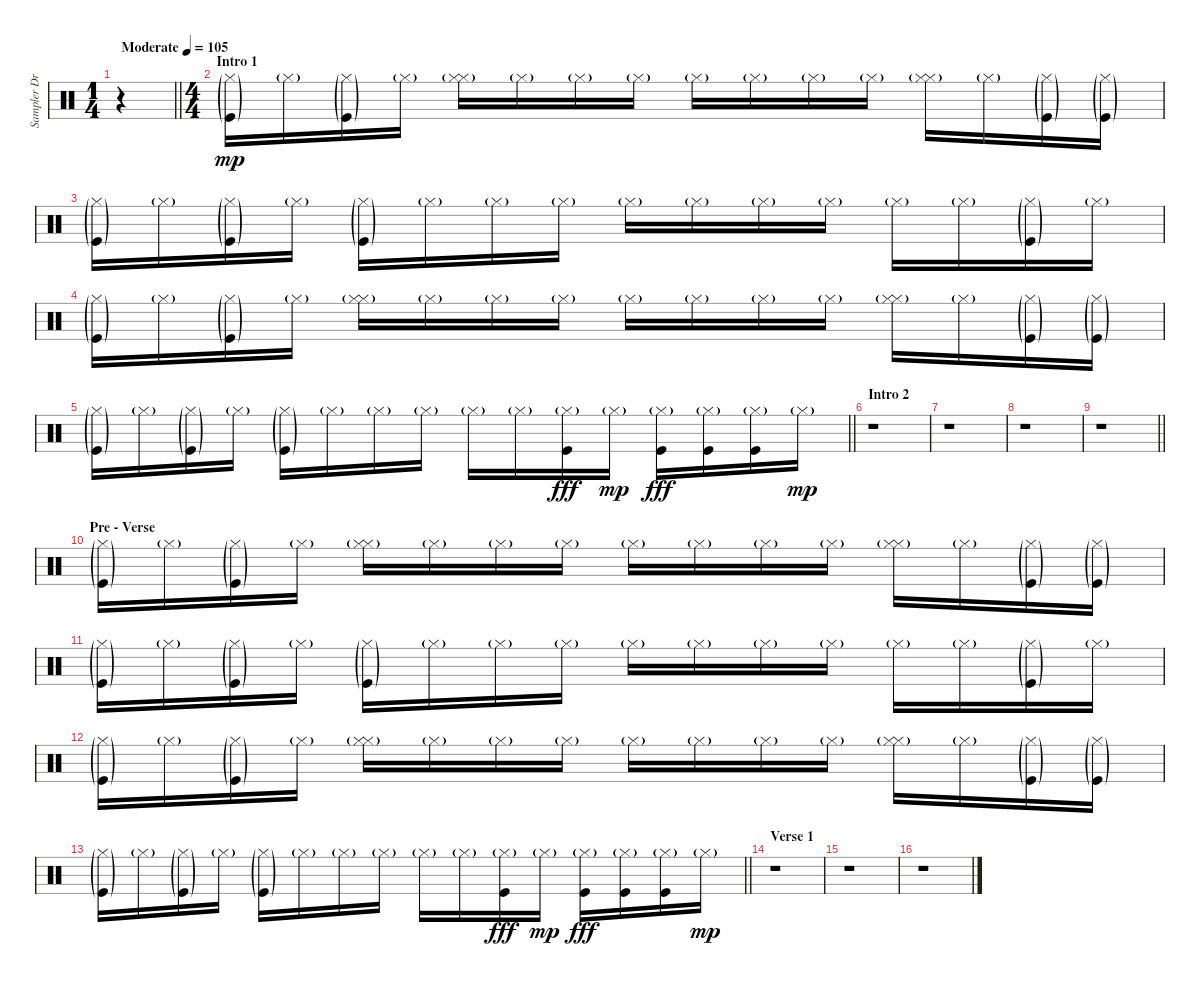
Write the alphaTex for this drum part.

\track ("Sampler Drums" "Sampler Dr") {instrument percussion}
\staff {score}
\articulation defaults
\ts (1 4)
\tempo (105 "Moderate")
\clef neutral
\barLineRight lightlight
\ks c
r.4{dy mp} |
\ts (4 4)
\section ("" "Intro 1")
("Hi-Hat (closed)"{g} "Kick (hit)"{g}).16 "Hi-Hat (closed)"{g}.16 ("Hi-Hat (closed)"{g} "Kick (hit)"{g}).16 "Hi-Hat (closed)"{g}.16 ("Hi-Hat (closed)"{g} "Hi-Hat (closed)"{g}).16 "Hi-Hat (closed)"{g}.16 "Hi-Hat (closed)"{g}.16 "Hi-Hat (closed)"{g}.16 "Hi-Hat (closed)"{g}.16 "Hi-Hat (closed)"{g}.16 "Hi-Hat (closed)"{g}.16 "Hi-Hat (closed)"{g}.16 ("Hi-Hat (closed)"{g} "Hi-Hat (closed)"{g}).16 "Hi-Hat (closed)"{g}.16 ("Hi-Hat (closed)"{g} "Kick (hit)"{g}).16 ("Hi-Hat (closed)"{g} "Kick (hit)"{g}).16 |
("Hi-Hat (closed)"{g} "Kick (hit)"{g}).16 "Hi-Hat (closed)"{g}.16 ("Hi-Hat (closed)"{g} "Kick (hit)"{g}).16 "Hi-Hat (closed)"{g}.16 ("Hi-Hat (closed)"{g} "Kick (hit)"{g}).16 "Hi-Hat (closed)"{g}.16 "Hi-Hat (closed)"{g}.16 "Hi-Hat (closed)"{g}.16 "Hi-Hat (closed)"{g}.16 "Hi-Hat (closed)"{g}.16 "Hi-Hat (closed)"{g}.16 "Hi-Hat (closed)"{g}.16 "Hi-Hat (closed)"{g}.16 "Hi-Hat (closed)"{g}.16 ("Hi-Hat (closed)"{g} "Kick (hit)"{g}).16 "Hi-Hat (closed)"{g}.16 |
("Hi-Hat (closed)"{g} "Kick (hit)"{g}).16 "Hi-Hat (closed)"{g}.16 ("Hi-Hat (closed)"{g} "Kick (hit)"{g}).16 "Hi-Hat (closed)"{g}.16 ("Hi-Hat (closed)"{g} "Hi-Hat (closed)"{g}).16 "Hi-Hat (closed)"{g}.16 "Hi-Hat (closed)"{g}.16 "Hi-Hat (closed)"{g}.16 "Hi-Hat (closed)"{g}.16 "Hi-Hat (closed)"{g}.16 "Hi-Hat (closed)"{g}.16 "Hi-Hat (closed)"{g}.16 ("Hi-Hat (closed)"{g} "Hi-Hat (closed)"{g}).16 "Hi-Hat (closed)"{g}.16 ("Hi-Hat (closed)"{g} "Kick (hit)"{g}).16 ("Hi-Hat (closed)"{g} "Kick (hit)"{g}).16 |
\barLineRight lightlight
("Hi-Hat (closed)"{g} "Kick (hit)"{g}).16 "Hi-Hat (closed)"{g}.16 ("Hi-Hat (closed)"{g} "Kick (hit)"{g}).16 "Hi-Hat (closed)"{g}.16 ("Hi-Hat (closed)"{g} "Kick (hit)"{g}).16 "Hi-Hat (closed)"{g}.16 "Hi-Hat (closed)"{g}.16 "Hi-Hat (closed)"{g}.16 "Hi-Hat (closed)"{g}.16 "Hi-Hat (closed)"{g}.16 ("Hi-Hat (closed)"{g} "Kick (hit)").16{dy fff} "Hi-Hat (closed)"{g}.16{dy mp} ("Hi-Hat (closed)"{g} "Kick (hit)").16{dy fff} ("Hi-Hat (closed)"{g} "Kick (hit)").16 ("Hi-Hat (closed)"{g} "Kick (hit)").16 "Hi-Hat (closed)"{g}.16{dy mp} |
\section ("" "Intro 2")
r.1 |
r.1 |
r.1 |
\barLineRight lightlight
r.1 |
\section ("" "Pre - Verse")
("Hi-Hat (closed)"{g} "Kick (hit)"{g}).16 "Hi-Hat (closed)"{g}.16 ("Hi-Hat (closed)"{g} "Kick (hit)"{g}).16 "Hi-Hat (closed)"{g}.16 ("Hi-Hat (closed)"{g} "Hi-Hat (closed)"{g}).16 "Hi-Hat (closed)"{g}.16 "Hi-Hat (closed)"{g}.16 "Hi-Hat (closed)"{g}.16 "Hi-Hat (closed)"{g}.16 "Hi-Hat (closed)"{g}.16 "Hi-Hat (closed)"{g}.16 "Hi-Hat (closed)"{g}.16 ("Hi-Hat (closed)"{g} "Hi-Hat (closed)"{g}).16 "Hi-Hat (closed)"{g}.16 ("Hi-Hat (closed)"{g} "Kick (hit)"{g}).16 ("Hi-Hat (closed)"{g} "Kick (hit)"{g}).16 |
("Hi-Hat (closed)"{g} "Kick (hit)"{g}).16 "Hi-Hat (closed)"{g}.16 ("Hi-Hat (closed)"{g} "Kick (hit)"{g}).16 "Hi-Hat (closed)"{g}.16 ("Hi-Hat (closed)"{g} "Kick (hit)"{g}).16 "Hi-Hat (closed)"{g}.16 "Hi-Hat (closed)"{g}.16 "Hi-Hat (closed)"{g}.16 "Hi-Hat (closed)"{g}.16 "Hi-Hat (closed)"{g}.16 "Hi-Hat (closed)"{g}.16 "Hi-Hat (closed)"{g}.16 "Hi-Hat (closed)"{g}.16 "Hi-Hat (closed)"{g}.16 ("Hi-Hat (closed)"{g} "Kick (hit)"{g}).16 "Hi-Hat (closed)"{g}.16 |
("Hi-Hat (closed)"{g} "Kick (hit)"{g}).16 "Hi-Hat (closed)"{g}.16 ("Hi-Hat (closed)"{g} "Kick (hit)"{g}).16 "Hi-Hat (closed)"{g}.16 ("Hi-Hat (closed)"{g} "Hi-Hat (closed)"{g}).16 "Hi-Hat (closed)"{g}.16 "Hi-Hat (closed)"{g}.16 "Hi-Hat (closed)"{g}.16 "Hi-Hat (closed)"{g}.16 "Hi-Hat (closed)"{g}.16 "Hi-Hat (closed)"{g}.16 "Hi-Hat (closed)"{g}.16 ("Hi-Hat (closed)"{g} "Hi-Hat (closed)"{g}).16 "Hi-Hat (closed)"{g}.16 ("Hi-Hat (closed)"{g} "Kick (hit)"{g}).16 ("Hi-Hat (closed)"{g} "Kick (hit)"{g}).16 |
\barLineRight lightlight
("Hi-Hat (closed)"{g} "Kick (hit)"{g}).16 "Hi-Hat (closed)"{g}.16 ("Hi-Hat (closed)"{g} "Kick (hit)"{g}).16 "Hi-Hat (closed)"{g}.16 ("Hi-Hat (closed)"{g} "Kick (hit)"{g}).16 "Hi-Hat (closed)"{g}.16 "Hi-Hat (closed)"{g}.16 "Hi-Hat (closed)"{g}.16 "Hi-Hat (closed)"{g}.16 "Hi-Hat (closed)"{g}.16 ("Hi-Hat (closed)"{g} "Kick (hit)").16{dy fff} "Hi-Hat (closed)"{g}.16{dy mp} ("Hi-Hat (closed)"{g} "Kick (hit)").16{dy fff} ("Hi-Hat (closed)"{g} "Kick (hit)").16 ("Hi-Hat (closed)"{g} "Kick (hit)").16 "Hi-Hat (closed)"{g}.16{dy mp} |
\section ("" "Verse 1")
r.1 |
r.1 |
r.1
